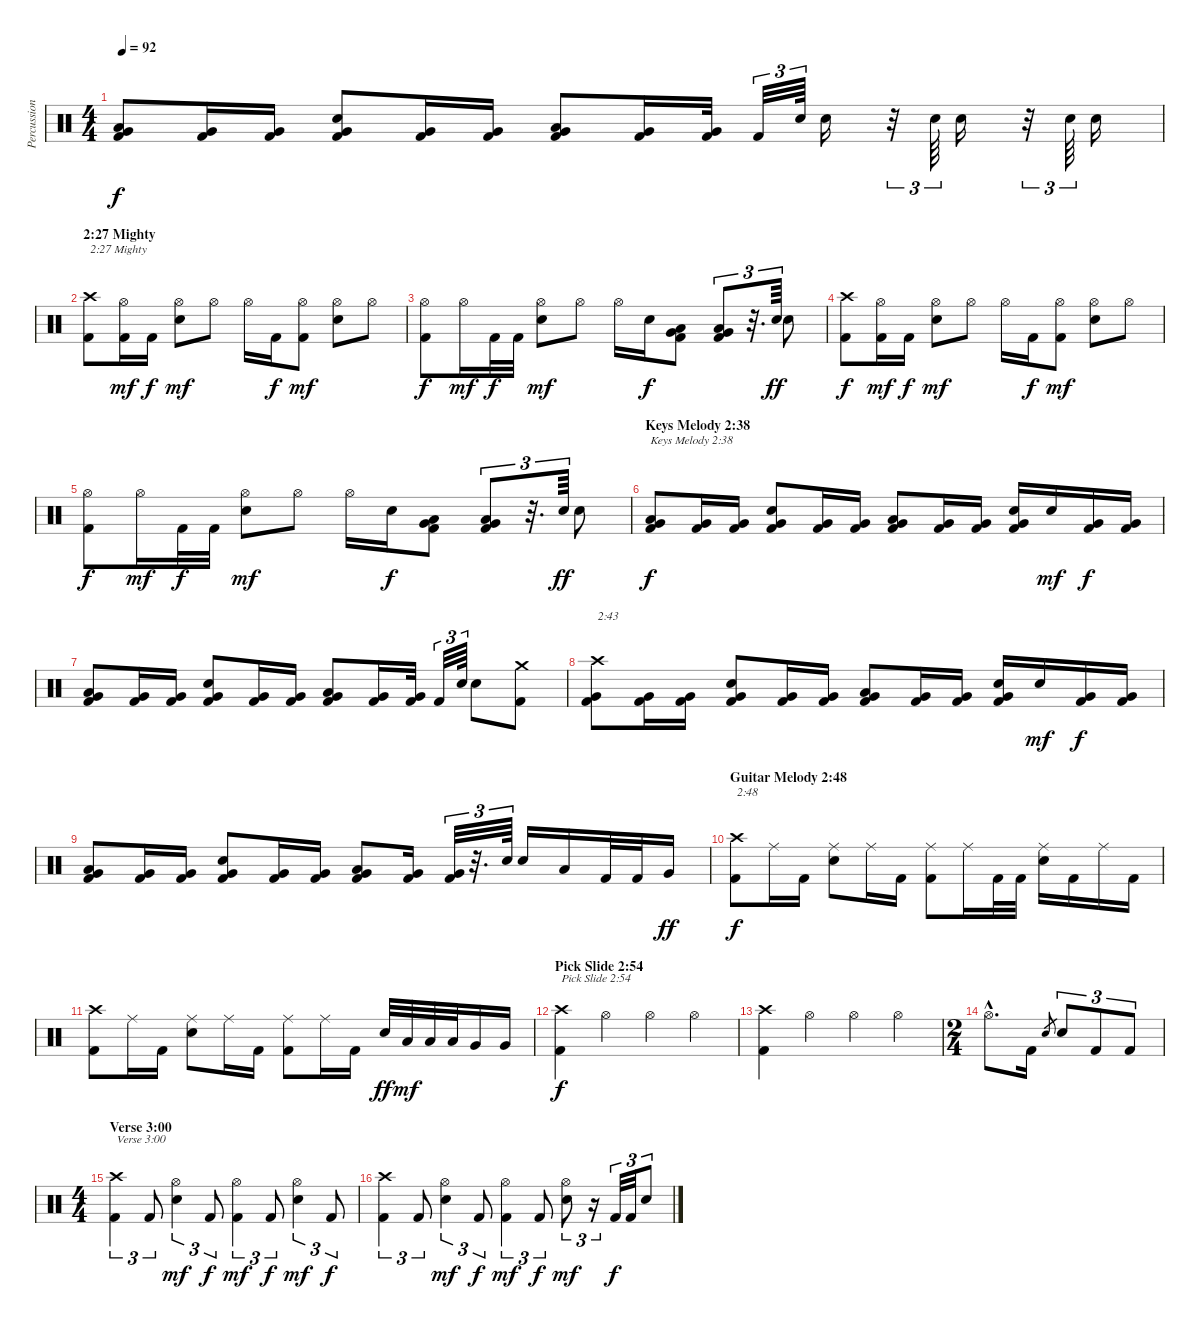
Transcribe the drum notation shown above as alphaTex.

\track ("Percussion" "Percussion") {instrument percussion}
\staff {score}
\articulation defaults
\ts (4 4)
\tempo 92
\clef neutral
\ks c
("Kick (hit) 2" "Very Low Tom (hit)" "Low Tom (hit)").8{dy f} ("Kick (hit) 2" "Very Low Tom (hit)").16 ("Kick (hit) 2" "Very Low Tom (hit)").16 ("Kick (hit) 2" "Very Low Tom (hit)" "Electric Snare (hit)").8 ("Kick (hit) 2" "Very Low Tom (hit)").16 ("Kick (hit) 2" "Very Low Tom (hit)").16 ("Kick (hit) 2" "Very Low Tom (hit)" "Low Tom (hit)").8 ("Kick (hit) 2" "Very Low Tom (hit)").16 ("Kick (hit) 2" "Very Low Tom (hit)").32 "Kick (hit) 2".32{tu (3 2)} "Electric Snare (hit)".64{tu (3 2)} "Electric Snare (hit)".16 r.32{tu (3 2)} "Electric Snare (hit)".64{tu (3 2)} "Electric Snare (hit)".16 r.32{tu (3 2)} "Electric Snare (hit)".64{tu (3 2)} "Electric Snare (hit)".16 |
\section ("" "2:27 Mighty")
("Kick (hit) 2" "Crash high (hit)").8{txt "2:27 Mighty"} ("Kick (hit) 2" "Hi-Hat (open)").16{dy mf} "Kick (hit) 2".16{dy f} ("Electric Snare (hit)" "Hi-Hat (open)").8{dy mf} "Hi-Hat (open)".8 "Hi-Hat (open)".16 "Kick (hit) 2".16{dy f} ("Kick (hit) 2" "Hi-Hat (open)").8{dy mf} ("Electric Snare (hit)" "Hi-Hat (open)").8 "Hi-Hat (open)".8 |
("Kick (hit) 2" "Hi-Hat (open)").8{dy f} "Hi-Hat (open)".16{dy mf} "Kick (hit) 2".32{dy f} "Kick (hit) 2".32 ("Electric Snare (hit)" "Hi-Hat (open)").8{dy mf} "Hi-Hat (open)".8 "Hi-Hat (open)".16 "Electric Snare (hit)".16{dy f} ("Kick (hit) 2" "Very Low Tom (hit)" "Low Tom (hit)").8 ("Kick (hit) 2" "Very Low Tom (hit)" "Low Tom (hit)").8{tu (3 2)} r.32{d tu (3 2)} "Electric Snare (hit)".64{tu (3 2) dy ff} "Electric Snare (hit)".8 |
("Kick (hit) 2" "Crash high (hit)").8{dy f} ("Kick (hit) 2" "Hi-Hat (open)").16{dy mf} "Kick (hit) 2".16{dy f} ("Electric Snare (hit)" "Hi-Hat (open)").8{dy mf} "Hi-Hat (open)".8 "Hi-Hat (open)".16 "Kick (hit) 2".16{dy f} ("Kick (hit) 2" "Hi-Hat (open)").8{dy mf} ("Electric Snare (hit)" "Hi-Hat (open)").8 "Hi-Hat (open)".8 |
("Kick (hit) 2" "Hi-Hat (open)").8{dy f} "Hi-Hat (open)".16{dy mf} "Kick (hit) 2".32{dy f} "Kick (hit) 2".32 ("Electric Snare (hit)" "Hi-Hat (open)").8{dy mf} "Hi-Hat (open)".8 "Hi-Hat (open)".16 "Electric Snare (hit)".16{dy f} ("Kick (hit) 2" "Very Low Tom (hit)" "Low Tom (hit)").8 ("Kick (hit) 2" "Very Low Tom (hit)" "Low Tom (hit)").8{tu (3 2)} r.32{d tu (3 2)} "Electric Snare (hit)".64{tu (3 2) dy ff} "Electric Snare (hit)".8 |
\section ("" "Keys Melody 2:38 ")
("Kick (hit) 2" "Very Low Tom (hit)" "Low Tom (hit)").8{txt "Keys Melody 2:38 " dy f} ("Kick (hit) 2" "Very Low Tom (hit)").16 ("Kick (hit) 2" "Very Low Tom (hit)").16 ("Kick (hit) 2" "Very Low Tom (hit)" "Electric Snare (hit)").8 ("Kick (hit) 2" "Very Low Tom (hit)").16 ("Kick (hit) 2" "Very Low Tom (hit)").16 ("Kick (hit) 2" "Very Low Tom (hit)" "Low Tom (hit)").8 ("Kick (hit) 2" "Very Low Tom (hit)").16 ("Kick (hit) 2" "Very Low Tom (hit)").16 ("Kick (hit) 2" "Very Low Tom (hit)" "Electric Snare (hit)").16 "Electric Snare (hit)".16{dy mf} ("Kick (hit) 2" "Very Low Tom (hit)").16{dy f} ("Kick (hit) 2" "Very Low Tom (hit)").16 |
("Kick (hit) 2" "Very Low Tom (hit)" "Low Tom (hit)").8 ("Kick (hit) 2" "Very Low Tom (hit)").16 ("Kick (hit) 2" "Very Low Tom (hit)").16 ("Kick (hit) 2" "Very Low Tom (hit)" "Electric Snare (hit)").8 ("Kick (hit) 2" "Very Low Tom (hit)").16 ("Kick (hit) 2" "Very Low Tom (hit)").16 ("Kick (hit) 2" "Very Low Tom (hit)" "Low Tom (hit)").8 ("Kick (hit) 2" "Very Low Tom (hit)").16 ("Kick (hit) 2" "Very Low Tom (hit)").32 "Kick (hit) 2".32{tu (3 2)} "Electric Snare (hit)".64{tu (3 2)} "Electric Snare (hit)".8 ("Kick (hit) 2" "Crash medium (hit)").8 |
("Kick (hit) 2" "Very Low Tom (hit)" "Crash high (hit)").8{txt "2:43"} ("Kick (hit) 2" "Very Low Tom (hit)").16 ("Kick (hit) 2" "Very Low Tom (hit)").16 ("Kick (hit) 2" "Very Low Tom (hit)" "Electric Snare (hit)").8 ("Kick (hit) 2" "Very Low Tom (hit)").16 ("Kick (hit) 2" "Very Low Tom (hit)").16 ("Kick (hit) 2" "Very Low Tom (hit)" "Low Tom (hit)").8 ("Kick (hit) 2" "Very Low Tom (hit)").16 ("Kick (hit) 2" "Very Low Tom (hit)").16 ("Kick (hit) 2" "Very Low Tom (hit)" "Electric Snare (hit)").16 "Electric Snare (hit)".16{dy mf} ("Kick (hit) 2" "Very Low Tom (hit)").16{dy f} ("Kick (hit) 2" "Very Low Tom (hit)").16 |
("Kick (hit) 2" "Very Low Tom (hit)" "Low Tom (hit)").8 ("Kick (hit) 2" "Very Low Tom (hit)").16 ("Kick (hit) 2" "Very Low Tom (hit)").16 ("Kick (hit) 2" "Very Low Tom (hit)" "Electric Snare (hit)").8 ("Kick (hit) 2" "Very Low Tom (hit)").16 ("Kick (hit) 2" "Very Low Tom (hit)").16 ("Kick (hit) 2" "Very Low Tom (hit)" "Low Tom (hit)").8 ("Kick (hit) 2" "Very Low Tom (hit)").16 ("Kick (hit) 2" "Very Low Tom (hit)").32{tu (3 2)} r.32{d tu (3 2)} "Electric Snare (hit)".64{tu (3 2)} "Electric Snare (hit)".16 "Low Tom (hit)".16 "Kick (hit) 2".32 "Kick (hit) 2".32 "Very Low Tom (hit)".16{dy ff} |
\section ("" "Guitar Melody 2:48")
("Kick (hit) 2" "Crash high (hit)").8{txt "2:48" dy f} "Ride (middle)".16 "Kick (hit) 2".16 ("Electric Snare (hit)" "Ride (middle)").8 "Ride (middle)".16 "Kick (hit) 2".16 ("Kick (hit) 2" "Ride (middle)").8 "Ride (middle)".16 "Kick (hit) 2".32 "Kick (hit) 2".32 ("Electric Snare (hit)" "Ride (middle)").16 "Kick (hit) 2".16 "Ride (middle)".16 "Kick (hit) 2".16 |
("Kick (hit) 2" "Crash high (hit)").8 "Ride (middle)".16 "Kick (hit) 2".16 ("Electric Snare (hit)" "Ride (middle)").8 "Ride (middle)".16 "Kick (hit) 2".16 ("Kick (hit) 2" "Ride (middle)").8 "Ride (middle)".16 "Kick (hit) 2".16 "Electric Snare (hit)".32{dy ff} "Low Tom (hit)".32{dy mf} "Low Tom (hit)".32 "Low Tom (hit)".32 "Very Low Tom (hit)".16 "Very Low Tom (hit)".16 |
\section ("" "Pick Slide 2:54")
("Kick (hit) 2" "Crash high (hit)").4{txt "Pick Slide 2:54" dy f} "Hi-Hat (open)".4 "Hi-Hat (open)".4 "Hi-Hat (open)".4 |
("Kick (hit) 2" "Crash high (hit)").4 "Hi-Hat (open)".4 "Hi-Hat (open)".4 "Hi-Hat (open)".4 |
\ts (2 4)
"Hi-Hat (open)"{hac}.8{d} "Kick (hit) 2".16 "Electric Snare (hit)".8{gr} "Electric Snare (hit)".8{tu (3 2)} "Kick (hit) 2".8{tu (3 2)} "Kick (hit) 2".8{tu (3 2)} |
\ts (4 4)
\section ("" "Verse 3:00")
("Kick (hit) 2" "Crash high (hit)").4{tu (3 2) txt "Verse 3:00"} "Kick (hit) 2".8{tu (3 2)} ("Electric Snare (hit)" "Hi-Hat (open)").4{tu (3 2) dy mf} "Kick (hit) 2".8{tu (3 2) dy f} ("Kick (hit) 2" "Hi-Hat (open)").4{tu (3 2) dy mf} "Kick (hit) 2".8{tu (3 2) dy f} ("Electric Snare (hit)" "Hi-Hat (open)").4{tu (3 2) dy mf} "Kick (hit) 2".8{tu (3 2) dy f} |
("Kick (hit) 2" "Crash high (hit)").4{tu (3 2)} "Kick (hit) 2".8{tu (3 2)} ("Electric Snare (hit)" "Hi-Hat (open)").4{tu (3 2) dy mf} "Kick (hit) 2".8{tu (3 2) dy f} ("Kick (hit) 2" "Hi-Hat (open)").4{tu (3 2) dy mf} "Kick (hit) 2".8{tu (3 2) dy f} ("Electric Snare (hit)" "Hi-Hat (open)").8{tu (3 2) dy mf} r.16{tu (3 2)} "Kick (hit) 2".32{tu (3 2) dy f} "Kick (hit) 2".32{tu (3 2)} "Electric Snare (hit)".8{tu (3 2)}
